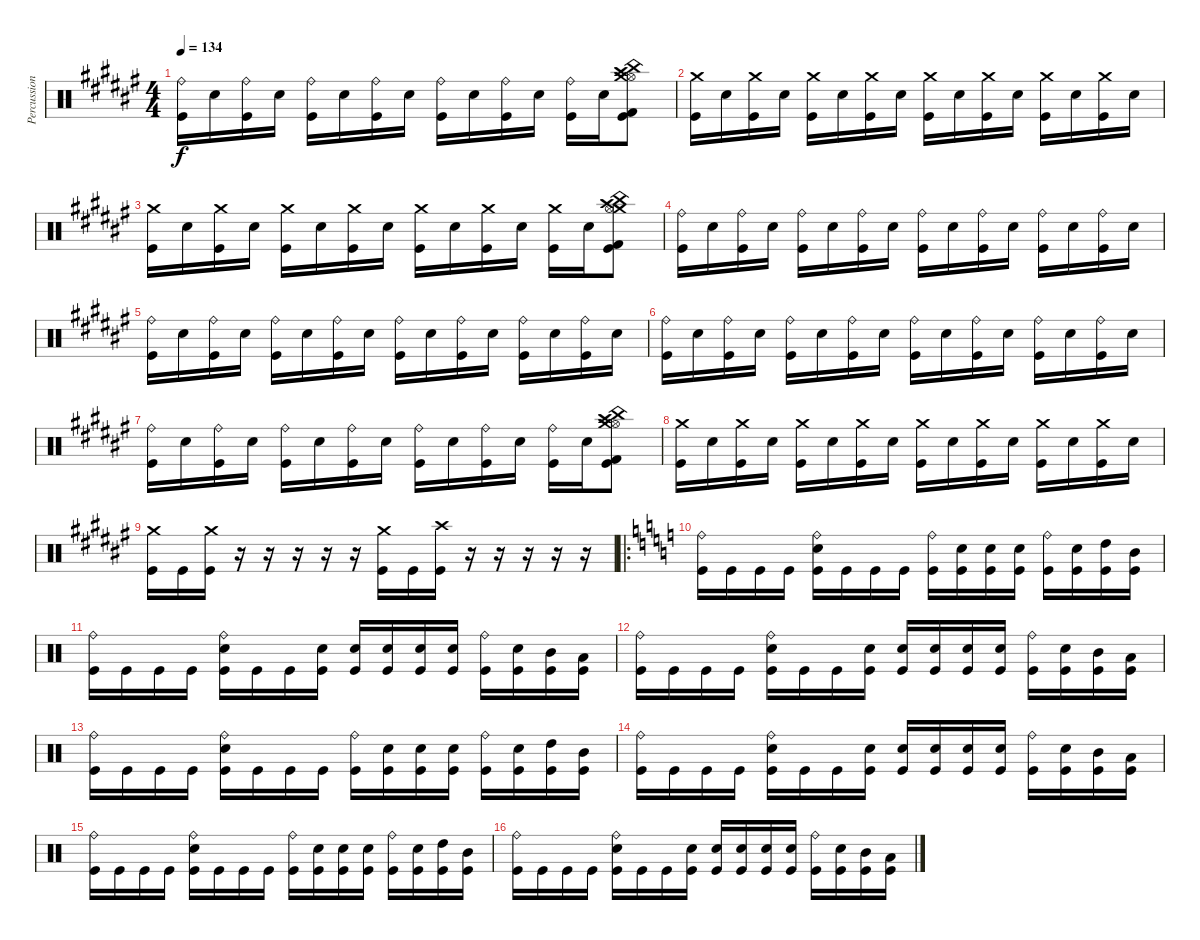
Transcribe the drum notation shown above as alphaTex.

\track ("Percussion" "Percussion") {instrument percussion}
\staff {score}
\articulation defaults
\ts (4 4)
\tempo 134
\clef neutral
\ks f#
("Ride (bell)" "Kick (hit)").16{dy f} "Electric Snare (hit)".16 ("Ride (bell)" "Kick (hit)").16 "Electric Snare (hit)".16 ("Ride (bell)" "Kick (hit)").16 "Electric Snare (hit)".16 ("Ride (bell)" "Kick (hit)").16 "Electric Snare (hit)".16 ("Ride (bell)" "Kick (hit)").16 "Electric Snare (hit)".16 ("Ride (bell)" "Kick (hit)").16 "Electric Snare (hit)".16 ("Ride (bell)" "Kick (hit)").16 "Electric Snare (hit)".16 ("Hi-Hat (open)" "China (hit)" "Crash medium (hit)" "Kick (hit) 2" "Crash high (hit)" "Kick (hit)").8 |
("Crash medium (hit)" "Kick (hit)").16 "Electric Snare (hit)".16 ("Crash medium (hit)" "Kick (hit)").16 "Electric Snare (hit)".16 ("Crash medium (hit)" "Kick (hit)").16 "Electric Snare (hit)".16 ("Crash medium (hit)" "Kick (hit)").16 "Electric Snare (hit)".16 ("Crash medium (hit)" "Kick (hit)").16 "Electric Snare (hit)".16 ("Crash medium (hit)" "Kick (hit)").16 "Electric Snare (hit)".16 ("Crash medium (hit)" "Kick (hit)").16 "Electric Snare (hit)".16 ("Crash medium (hit)" "Kick (hit)").16 "Electric Snare (hit)".16 |
("Crash medium (hit)" "Kick (hit)").16 "Electric Snare (hit)".16 ("Crash medium (hit)" "Kick (hit)").16 "Electric Snare (hit)".16 ("Crash medium (hit)" "Kick (hit)").16 "Electric Snare (hit)".16 ("Crash medium (hit)" "Kick (hit)").16 "Electric Snare (hit)".16 ("Crash medium (hit)" "Kick (hit)").16 "Electric Snare (hit)".16 ("Crash medium (hit)" "Kick (hit)").16 "Electric Snare (hit)".16 ("Crash medium (hit)" "Kick (hit)").16 "Electric Snare (hit)".16 ("China (hit)" "Crash high (hit)" "Crash medium (hit)" "Kick (hit) 2" "Hi-Hat (open)" "Kick (hit)").8 |
("Ride (bell)" "Kick (hit)").16 "Electric Snare (hit)".16 ("Ride (bell)" "Kick (hit)").16 "Electric Snare (hit)".16 ("Ride (bell)" "Kick (hit)").16 "Electric Snare (hit)".16 ("Ride (bell)" "Kick (hit)").16 "Electric Snare (hit)".16 ("Ride (bell)" "Kick (hit)").16 "Electric Snare (hit)".16 ("Ride (bell)" "Kick (hit)").16 "Electric Snare (hit)".16 ("Ride (bell)" "Kick (hit)").16 "Electric Snare (hit)".16 ("Ride (bell)" "Kick (hit)").16 "Electric Snare (hit)".16 |
("Ride (bell)" "Kick (hit)").16 "Electric Snare (hit)".16 ("Ride (bell)" "Kick (hit)").16 "Electric Snare (hit)".16 ("Ride (bell)" "Kick (hit)").16 "Electric Snare (hit)".16 ("Ride (bell)" "Kick (hit)").16 "Electric Snare (hit)".16 ("Ride (bell)" "Kick (hit)").16 "Electric Snare (hit)".16 ("Ride (bell)" "Kick (hit)").16 "Electric Snare (hit)".16 ("Ride (bell)" "Kick (hit)").16 "Electric Snare (hit)".16 ("Ride (bell)" "Kick (hit)").16 "Electric Snare (hit)".16 |
("Ride (bell)" "Kick (hit)").16 "Electric Snare (hit)".16 ("Ride (bell)" "Kick (hit)").16 "Electric Snare (hit)".16 ("Ride (bell)" "Kick (hit)").16 "Electric Snare (hit)".16 ("Ride (bell)" "Kick (hit)").16 "Electric Snare (hit)".16 ("Ride (bell)" "Kick (hit)").16 "Electric Snare (hit)".16 ("Ride (bell)" "Kick (hit)").16 "Electric Snare (hit)".16 ("Ride (bell)" "Kick (hit)").16 "Electric Snare (hit)".16 ("Ride (bell)" "Kick (hit)").16 "Electric Snare (hit)".16 |
("Ride (bell)" "Kick (hit)").16 "Electric Snare (hit)".16 ("Ride (bell)" "Kick (hit)").16 "Electric Snare (hit)".16 ("Ride (bell)" "Kick (hit)").16 "Electric Snare (hit)".16 ("Ride (bell)" "Kick (hit)").16 "Electric Snare (hit)".16 ("Ride (bell)" "Kick (hit)").16 "Electric Snare (hit)".16 ("Ride (bell)" "Kick (hit)").16 "Electric Snare (hit)".16 ("Ride (bell)" "Kick (hit)").16 "Electric Snare (hit)".16 ("Hi-Hat (open)" "China (hit)" "Crash medium (hit)" "Kick (hit) 2" "Crash high (hit)" "Kick (hit)").8 |
("Crash medium (hit)" "Kick (hit)").16 "Electric Snare (hit)".16 ("Crash medium (hit)" "Kick (hit)").16 "Electric Snare (hit)".16 ("Crash medium (hit)" "Kick (hit)").16 "Electric Snare (hit)".16 ("Crash medium (hit)" "Kick (hit)").16 "Electric Snare (hit)".16 ("Crash medium (hit)" "Kick (hit)").16 "Electric Snare (hit)".16 ("Crash medium (hit)" "Kick (hit)").16 "Electric Snare (hit)".16 ("Crash medium (hit)" "Kick (hit)").16 "Electric Snare (hit)".16 ("Crash medium (hit)" "Kick (hit)").16 "Electric Snare (hit)".16 |
("Crash medium (hit)" "Kick (hit)").16 "Kick (hit)".16 ("Crash medium (hit)" "Kick (hit)").16 r.16 r.16 r.16 r.16 r.16 ("Crash medium (hit)" "Kick (hit)").16 "Kick (hit)".16 ("Crash high (hit)" "Kick (hit)").16 r.16 r.16 r.16 r.16 r.16 |
\ro
\ks c
("Ride (bell)" "Kick (hit)").16 "Kick (hit)".16 "Kick (hit)".16 "Kick (hit)".16 ("Ride (bell)" "Electric Snare (hit)" "Kick (hit)").16 "Kick (hit)".16 "Kick (hit)".16 "Kick (hit)".16 ("Ride (bell)" "Kick (hit)").16 ("Electric Snare (hit)" "Kick (hit)").16 ("Electric Snare (hit)" "Kick (hit)").16 ("Electric Snare (hit)" "Kick (hit)").16 ("Ride (bell)" "Kick (hit)").16 ("Electric Snare (hit)" "Kick (hit)").16 ("High Tom (hit)" "Kick (hit)").16 ("Mid Tom (hit)" "Kick (hit)").16 |
("Ride (bell)" "Kick (hit)").16 "Kick (hit)".16 "Kick (hit)".16 "Kick (hit)".16 ("Ride (bell)" "Electric Snare (hit)" "Kick (hit)").16 "Kick (hit)".16 "Kick (hit)".16 ("Electric Snare (hit)" "Kick (hit)").16 ("Electric Snare (hit)" "Kick (hit)").16 ("Electric Snare (hit)" "Kick (hit)").16 ("Electric Snare (hit)" "Kick (hit)").16 ("Electric Snare (hit)" "Kick (hit)").16 ("Ride (bell)" "Kick (hit)").16 ("Electric Snare (hit)" "Kick (hit)").16 ("Mid Tom (hit)" "Kick (hit)").16 ("Low Tom (hit)" "Kick (hit)").16 |
("Ride (bell)" "Kick (hit)").16 "Kick (hit)".16 "Kick (hit)".16 "Kick (hit)".16 ("Ride (bell)" "Electric Snare (hit)" "Kick (hit)").16 "Kick (hit)".16 "Kick (hit)".16 ("Electric Snare (hit)" "Kick (hit)").16 ("Electric Snare (hit)" "Kick (hit)").16 ("Electric Snare (hit)" "Kick (hit)").16 ("Electric Snare (hit)" "Kick (hit)").16 ("Electric Snare (hit)" "Kick (hit)").16 ("Ride (bell)" "Kick (hit)").16 ("Electric Snare (hit)" "Kick (hit)").16 ("Mid Tom (hit)" "Kick (hit)").16 ("Low Tom (hit)" "Kick (hit)").16 |
("Ride (bell)" "Kick (hit)").16 "Kick (hit)".16 "Kick (hit)".16 "Kick (hit)".16 ("Ride (bell)" "Electric Snare (hit)" "Kick (hit)").16 "Kick (hit)".16 "Kick (hit)".16 "Kick (hit)".16 ("Ride (bell)" "Kick (hit)").16 ("Electric Snare (hit)" "Kick (hit)").16 ("Electric Snare (hit)" "Kick (hit)").16 ("Electric Snare (hit)" "Kick (hit)").16 ("Ride (bell)" "Kick (hit)").16 ("Electric Snare (hit)" "Kick (hit)").16 ("High Tom (hit)" "Kick (hit)").16 ("Mid Tom (hit)" "Kick (hit)").16 |
("Ride (bell)" "Kick (hit)").16 "Kick (hit)".16 "Kick (hit)".16 "Kick (hit)".16 ("Ride (bell)" "Electric Snare (hit)" "Kick (hit)").16 "Kick (hit)".16 "Kick (hit)".16 ("Electric Snare (hit)" "Kick (hit)").16 ("Electric Snare (hit)" "Kick (hit)").16 ("Electric Snare (hit)" "Kick (hit)").16 ("Electric Snare (hit)" "Kick (hit)").16 ("Electric Snare (hit)" "Kick (hit)").16 ("Ride (bell)" "Kick (hit)").16 ("Electric Snare (hit)" "Kick (hit)").16 ("Mid Tom (hit)" "Kick (hit)").16 ("Low Tom (hit)" "Kick (hit)").16 |
("Ride (bell)" "Kick (hit)").16 "Kick (hit)".16 "Kick (hit)".16 "Kick (hit)".16 ("Ride (bell)" "Electric Snare (hit)" "Kick (hit)").16 "Kick (hit)".16 "Kick (hit)".16 "Kick (hit)".16 ("Ride (bell)" "Kick (hit)").16 ("Electric Snare (hit)" "Kick (hit)").16 ("Electric Snare (hit)" "Kick (hit)").16 ("Electric Snare (hit)" "Kick (hit)").16 ("Ride (bell)" "Kick (hit)").16 ("Electric Snare (hit)" "Kick (hit)").16 ("High Tom (hit)" "Kick (hit)").16 ("Mid Tom (hit)" "Kick (hit)").16 |
("Ride (bell)" "Kick (hit)").16 "Kick (hit)".16 "Kick (hit)".16 "Kick (hit)".16 ("Ride (bell)" "Electric Snare (hit)" "Kick (hit)").16 "Kick (hit)".16 "Kick (hit)".16 ("Electric Snare (hit)" "Kick (hit)").16 ("Electric Snare (hit)" "Kick (hit)").16 ("Electric Snare (hit)" "Kick (hit)").16 ("Electric Snare (hit)" "Kick (hit)").16 ("Electric Snare (hit)" "Kick (hit)").16 ("Ride (bell)" "Kick (hit)").16 ("Electric Snare (hit)" "Kick (hit)").16 ("Mid Tom (hit)" "Kick (hit)").16 ("Low Tom (hit)" "Kick (hit)").16
